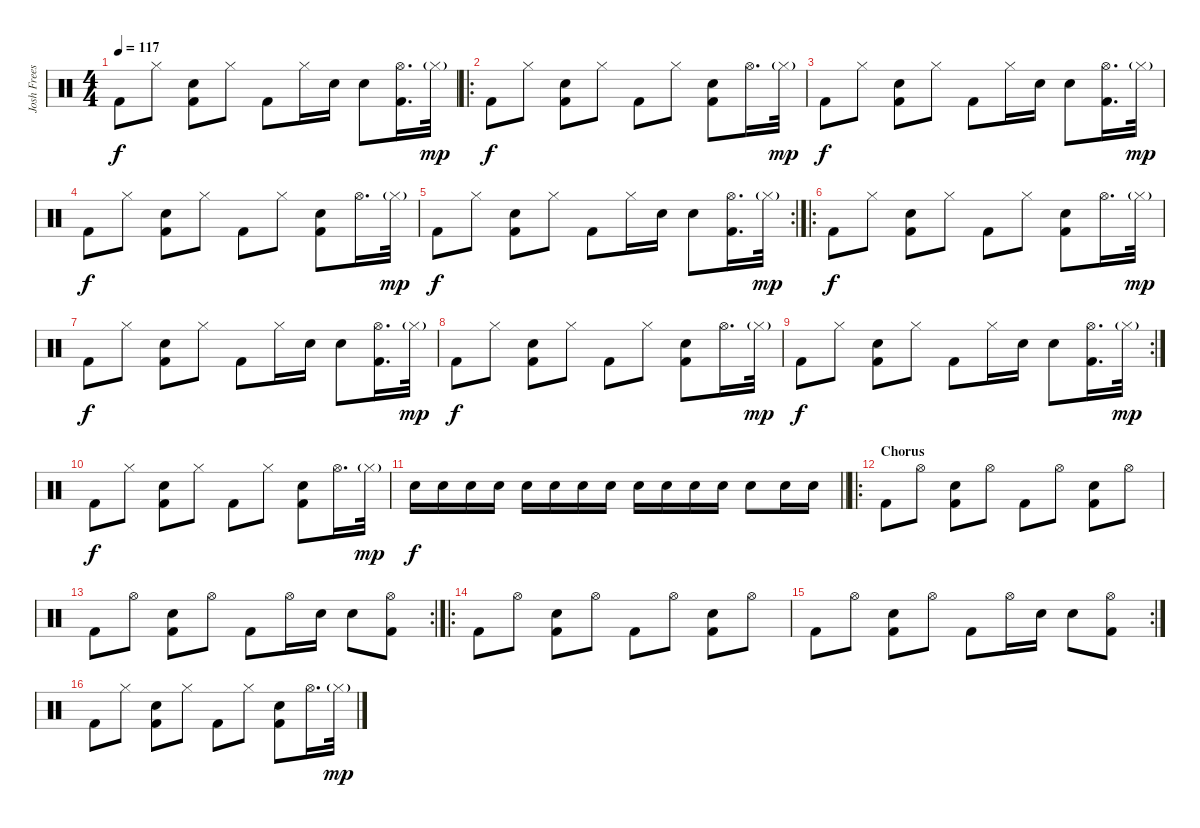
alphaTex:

\track ("Josh Freese" "Josh Frees") {instrument percussion}
\staff {score}
\articulation defaults
\ts (4 4)
\tempo 117
\clef neutral
\ks c "Kick (hit) 2".8{dy f} "Hi-Hat (closed)".8
("Electric Snare (hit)" "Kick (hit) 2").8 "Hi-Hat (closed)".8 "Kick (hit) 2".8 "Hi-Hat (closed)".16 "Electric Snare (hit)".16 "Electric Snare (hit)".8 ("Hi-Hat (open)" "Kick (hit) 2").16{d} "Hi-Hat (closed)"{g}.32{dy mp} |
\ro "Kick (hit) 2".8{dy f} "Hi-Hat (closed)".8
("Electric Snare (hit)" "Kick (hit) 2").8 "Hi-Hat (closed)".8 "Kick (hit) 2".8 "Hi-Hat (closed)".8 ("Electric Snare (hit)" "Kick (hit) 2").8 "Hi-Hat (open)".16{d} "Hi-Hat (closed)"{g}.32{dy mp} |
"Kick (hit) 2".8{dy f} "Hi-Hat (closed)".8 ("Electric Snare (hit)" "Kick (hit) 2").8 "Hi-Hat (closed)".8 "Kick (hit) 2".8 "Hi-Hat (closed)".16 "Electric Snare (hit)".16 "Electric Snare (hit)".8 ("Hi-Hat (open)" "Kick (hit) 2").16{d} "Hi-Hat (closed)"{g}.32{dy mp} |
"Kick (hit) 2".8{dy f} "Hi-Hat (closed)".8 ("Electric Snare (hit)" "Kick (hit) 2").8 "Hi-Hat (closed)".8 "Kick (hit) 2".8 "Hi-Hat (closed)".8 ("Electric Snare (hit)" "Kick (hit) 2").8 "Hi-Hat (open)".16{d} "Hi-Hat (closed)"{g}.32{dy mp} |
\rc 2 "Kick (hit) 2".8{dy f} "Hi-Hat (closed)".8
("Electric Snare (hit)" "Kick (hit) 2").8 "Hi-Hat (closed)".8 "Kick (hit) 2".8 "Hi-Hat (closed)".16 "Electric Snare (hit)".16 "Electric Snare (hit)".8 ("Hi-Hat (open)" "Kick (hit) 2").16{d} "Hi-Hat (closed)"{g}.32{dy mp} |
\ro "Kick (hit) 2".8{dy f} "Hi-Hat (closed)".8
("Electric Snare (hit)" "Kick (hit) 2").8 "Hi-Hat (closed)".8 "Kick (hit) 2".8 "Hi-Hat (closed)".8 ("Electric Snare (hit)" "Kick (hit) 2").8 "Hi-Hat (open)".16{d} "Hi-Hat (closed)"{g}.32{dy mp} |
"Kick (hit) 2".8{dy f} "Hi-Hat (closed)".8 ("Electric Snare (hit)" "Kick (hit) 2").8 "Hi-Hat (closed)".8 "Kick (hit) 2".8 "Hi-Hat (closed)".16 "Electric Snare (hit)".16 "Electric Snare (hit)".8 ("Hi-Hat (open)" "Kick (hit) 2").16{d} "Hi-Hat (closed)"{g}.32{dy mp} |
"Kick (hit) 2".8{dy f} "Hi-Hat (closed)".8 ("Electric Snare (hit)" "Kick (hit) 2").8 "Hi-Hat (closed)".8 "Kick (hit) 2".8 "Hi-Hat (closed)".8 ("Electric Snare (hit)" "Kick (hit) 2").8 "Hi-Hat (open)".16{d} "Hi-Hat (closed)"{g}.32{dy mp} |
\rc 2 "Kick (hit) 2".8{dy f} "Hi-Hat (closed)".8
("Electric Snare (hit)" "Kick (hit) 2").8 "Hi-Hat (closed)".8 "Kick (hit) 2".8 "Hi-Hat (closed)".16 "Electric Snare (hit)".16 "Electric Snare (hit)".8 ("Hi-Hat (open)" "Kick (hit) 2").16{d} "Hi-Hat (closed)"{g}.32{dy mp} |
"Kick (hit) 2".8{dy f} "Hi-Hat (closed)".8 ("Electric Snare (hit)" "Kick (hit) 2").8 "Hi-Hat (closed)".8 "Kick (hit) 2".8 "Hi-Hat (closed)".8 ("Electric Snare (hit)" "Kick (hit) 2").8 "Hi-Hat (open)".16{d} "Hi-Hat (closed)"{g}.32{dy mp} |
\barLineRight lightlight "Electric Snare (hit)".16{dy f} "Electric Snare (hit)".16 "Electric Snare (hit)".16 "Electric Snare (hit)".16 "Electric Snare (hit)".16 "Electric Snare (hit)".16 "Electric Snare (hit)".16 "Electric Snare (hit)".16 "Electric Snare (hit)".16 "Electric Snare (hit)".16 "Electric Snare (hit)".16 "Electric Snare (hit)".16 "Electric Snare (hit)".8 "Electric Snare (hit)".16 "Electric Snare (hit)".16
|
\ro
\section ("" "Chorus")
"Kick (hit) 2".8 "Hi-Hat (open)".8 ("Electric Snare (hit)" "Kick (hit) 2").8 "Hi-Hat (open)".8 "Kick (hit) 2".8 "Hi-Hat (open)".8 ("Electric Snare (hit)" "Kick (hit) 2").8 "Hi-Hat (open)".8 |
\rc 2 "Kick (hit) 2".8 "Hi-Hat (open)".8
("Electric Snare (hit)" "Kick (hit) 2").8 "Hi-Hat (open)".8 "Kick (hit) 2".8 "Hi-Hat (open)".16 "Electric Snare (hit)".16 "Electric Snare (hit)".8 ("Hi-Hat (open)" "Kick (hit) 2").8 |
\ro "Kick (hit) 2".8 "Hi-Hat (open)".8
("Electric Snare (hit)" "Kick (hit) 2").8 "Hi-Hat (open)".8 "Kick (hit) 2".8 "Hi-Hat (open)".8 ("Electric Snare (hit)" "Kick (hit) 2").8 "Hi-Hat (open)".8 |
\rc 2 "Kick (hit) 2".8 "Hi-Hat (open)".8
("Electric Snare (hit)" "Kick (hit) 2").8 "Hi-Hat (open)".8 "Kick (hit) 2".8 "Hi-Hat (open)".16 "Electric Snare (hit)".16 "Electric Snare (hit)".8 ("Hi-Hat (open)" "Kick (hit) 2").8 |
"Kick (hit) 2".8 "Hi-Hat (closed)".8 ("Electric Snare (hit)" "Kick (hit) 2").8 "Hi-Hat (closed)".8 "Kick (hit) 2".8 "Hi-Hat (closed)".8 ("Electric Snare (hit)" "Kick (hit) 2").8 "Hi-Hat (open)".16{d} "Hi-Hat (closed)"{g}.32{dy mp}
